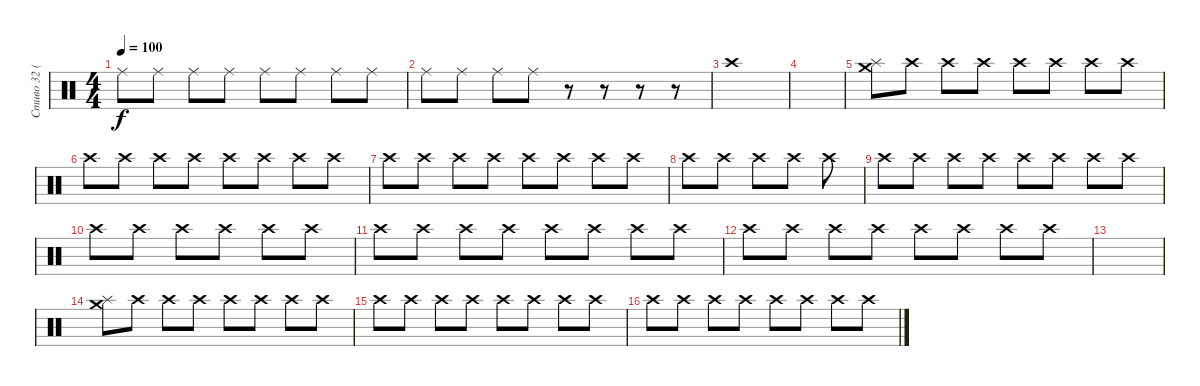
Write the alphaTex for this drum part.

\track ("Стиво 32 (Тарелки)" "Стиво 32 (") {instrument percussion}
\staff {score}
\articulation defaults
\ts (4 4)
\tempo 100
\clef neutral
\ks c "Ride (middle)".8{dy f} "Ride (middle)".8 "Ride (middle)".8 "Ride (middle)".8 "Ride (middle)".8 "Ride (middle)".8 "Ride (middle)".8 "Ride (middle)".8
|
"Ride (middle)".8 "Ride (middle)".8 "Ride (middle)".8 "Ride (middle)".8 r.8 r.8 r.8 r.8 |
"Crash high (hit)".1 |
|
("Splash (hit)" "Crash medium (hit)").8 "Crash high (hit)".8 "Crash high (hit)".8 "Crash high (hit)".8 "Crash high (hit)".8 "Crash high (hit)".8 "Crash high (hit)".8 "Crash high (hit)".8 |
"Crash high (hit)".8 "Crash high (hit)".8 "Crash high (hit)".8 "Crash high (hit)".8 "Crash high (hit)".8 "Crash high (hit)".8 "Crash high (hit)".8 "Crash high (hit)".8 |
"Crash high (hit)".8 "Crash high (hit)".8 "Crash high (hit)".8 "Crash high (hit)".8 "Crash high (hit)".8 "Crash high (hit)".8 "Crash high (hit)".8 "Crash high (hit)".8 |
"Crash high (hit)".8 "Crash high (hit)".8 "Crash high (hit)".8 "Crash high (hit)".8 "Crash high (hit)".8 |
"Crash high (hit)".8 "Crash high (hit)".8 "Crash high (hit)".8 "Crash high (hit)".8 "Crash high (hit)".8 "Crash high (hit)".8 "Crash high (hit)".8 "Crash high (hit)".8 |
"Crash high (hit)".8 "Crash high (hit)".8 "Crash high (hit)".8 "Crash high (hit)".8 "Crash high (hit)".8 "Crash high (hit)".8 |
"Crash high (hit)".8 "Crash high (hit)".8 "Crash high (hit)".8 "Crash high (hit)".8 "Crash high (hit)".8 "Crash high (hit)".8 "Crash high (hit)".8 "Crash high (hit)".8 |
"Crash high (hit)".8 "Crash high (hit)".8 "Crash high (hit)".8 "Crash high (hit)".8 "Crash high (hit)".8 "Crash high (hit)".8 "Crash high (hit)".8 "Crash high (hit)".8 |
|
("Splash (hit)" "Crash medium (hit)").8 "Crash high (hit)".8 "Crash high (hit)".8 "Crash high (hit)".8 "Crash high (hit)".8 "Crash high (hit)".8 "Crash high (hit)".8 "Crash high (hit)".8 |
"Crash high (hit)".8 "Crash high (hit)".8 "Crash high (hit)".8 "Crash high (hit)".8 "Crash high (hit)".8 "Crash high (hit)".8 "Crash high (hit)".8 "Crash high (hit)".8 |
"Crash high (hit)".8 "Crash high (hit)".8 "Crash high (hit)".8 "Crash high (hit)".8 "Crash high (hit)".8 "Crash high (hit)".8 "Crash high (hit)".8 "Crash high (hit)".8
